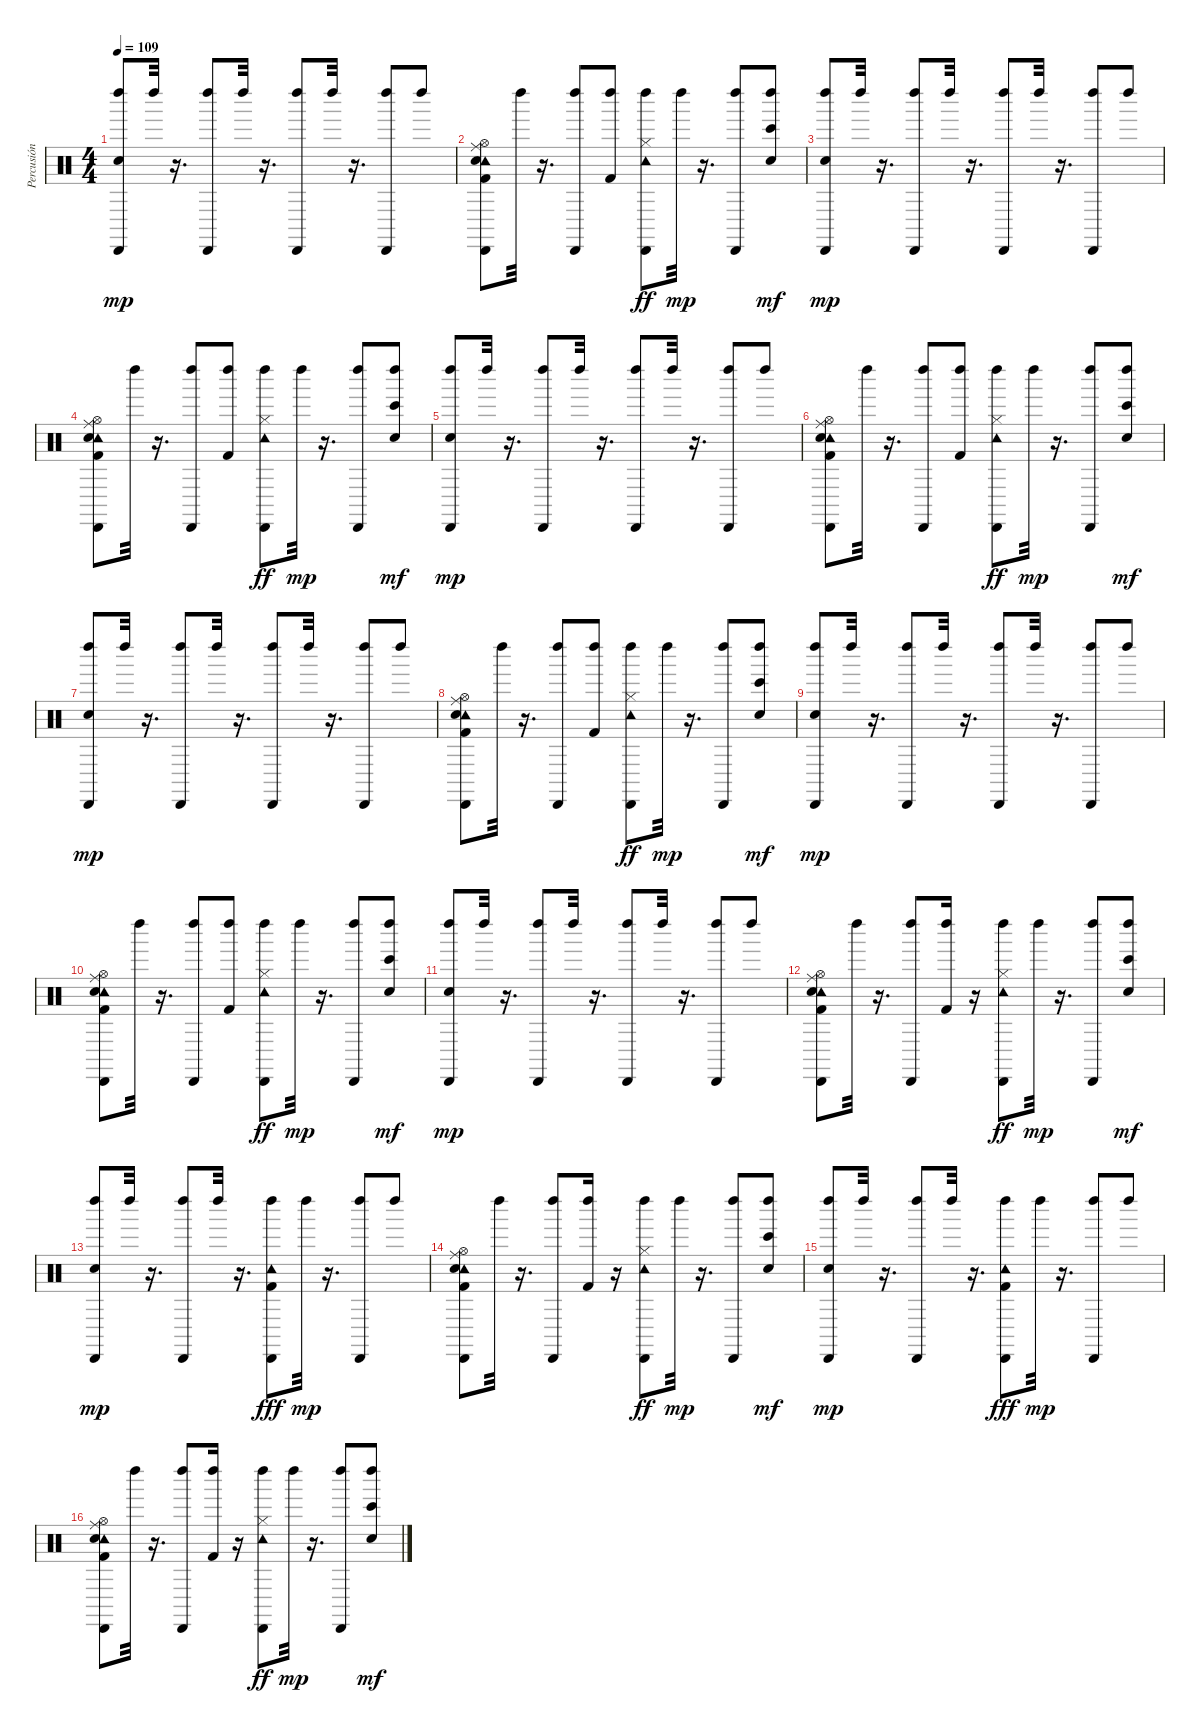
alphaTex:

\track ("Percusión" "Percusión") {instrument percussion}
\staff {score}
\articulation defaults
\ts (4 4)
\tempo 109
\clef neutral
\ks c
("Left Maraca (hit)" "Snare (hit)" "Cabasa (hit)").8{dy mp} "Left Maraca (hit)".32 r.16{d} ("Left Maraca (hit)" "Cabasa (hit)").8 "Left Maraca (hit)".32 r.16{d} ("Cabasa (hit)" "Left Maraca (hit)").8 "Left Maraca (hit)".32 r.16{d} ("Cabasa (hit)" "Left Maraca (hit)").8 "Left Maraca (hit)".8 |
("Ride (middle)" "Kick (hit) 2" "Hi-Hat (open)" "Tambourine (hit)" "Snare (hit)" "Cabasa (hit)").8 "Left Maraca (hit)".32 r.16{d} ("Cabasa (hit)" "Left Maraca (hit)").8 ("Kick (hit) 2" "Left Maraca (hit)").8 ("Left Maraca (hit)" "Cabasa (hit)" "Hi-Hat (closed)" "Tambourine (hit)").8{dy ff} "Left Maraca (hit)".32{dy mp} r.16{d} ("Cabasa (hit)" "Left Maraca (hit)").8 ("Left Maraca (hit)" "Snare (hit)" "Bongo High (hit)").8{dy mf} |
("Left Maraca (hit)" "Snare (hit)" "Cabasa (hit)").8{dy mp} "Left Maraca (hit)".32 r.16{d} ("Left Maraca (hit)" "Cabasa (hit)").8 "Left Maraca (hit)".32 r.16{d} ("Cabasa (hit)" "Left Maraca (hit)").8 "Left Maraca (hit)".32 r.16{d} ("Cabasa (hit)" "Left Maraca (hit)").8 "Left Maraca (hit)".8 |
("Ride (middle)" "Kick (hit) 2" "Hi-Hat (open)" "Tambourine (hit)" "Snare (hit)" "Cabasa (hit)").8 "Left Maraca (hit)".32 r.16{d} ("Cabasa (hit)" "Left Maraca (hit)").8 ("Kick (hit) 2" "Left Maraca (hit)").8 ("Left Maraca (hit)" "Cabasa (hit)" "Hi-Hat (closed)" "Tambourine (hit)").8{dy ff} "Left Maraca (hit)".32{dy mp} r.16{d} ("Cabasa (hit)" "Left Maraca (hit)").8 ("Left Maraca (hit)" "Snare (hit)" "Bongo High (hit)").8{dy mf} |
("Left Maraca (hit)" "Snare (hit)" "Cabasa (hit)").8{dy mp} "Left Maraca (hit)".32 r.16{d} ("Left Maraca (hit)" "Cabasa (hit)").8 "Left Maraca (hit)".32 r.16{d} ("Cabasa (hit)" "Left Maraca (hit)").8 "Left Maraca (hit)".32 r.16{d} ("Cabasa (hit)" "Left Maraca (hit)").8 "Left Maraca (hit)".8 |
("Ride (middle)" "Kick (hit) 2" "Hi-Hat (open)" "Tambourine (hit)" "Snare (hit)" "Cabasa (hit)").8 "Left Maraca (hit)".32 r.16{d} ("Cabasa (hit)" "Left Maraca (hit)").8 ("Kick (hit) 2" "Left Maraca (hit)").8 ("Left Maraca (hit)" "Cabasa (hit)" "Hi-Hat (closed)" "Tambourine (hit)").8{dy ff} "Left Maraca (hit)".32{dy mp} r.16{d} ("Cabasa (hit)" "Left Maraca (hit)").8 ("Left Maraca (hit)" "Snare (hit)" "Bongo High (hit)").8{dy mf} |
("Left Maraca (hit)" "Snare (hit)" "Cabasa (hit)").8{dy mp} "Left Maraca (hit)".32 r.16{d} ("Left Maraca (hit)" "Cabasa (hit)").8 "Left Maraca (hit)".32 r.16{d} ("Cabasa (hit)" "Left Maraca (hit)").8 "Left Maraca (hit)".32 r.16{d} ("Cabasa (hit)" "Left Maraca (hit)").8 "Left Maraca (hit)".8 |
("Ride (middle)" "Kick (hit) 2" "Hi-Hat (open)" "Tambourine (hit)" "Snare (hit)" "Cabasa (hit)").8 "Left Maraca (hit)".32 r.16{d} ("Cabasa (hit)" "Left Maraca (hit)").8 ("Kick (hit) 2" "Left Maraca (hit)").8 ("Left Maraca (hit)" "Cabasa (hit)" "Hi-Hat (closed)" "Tambourine (hit)").8{dy ff} "Left Maraca (hit)".32{dy mp} r.16{d} ("Cabasa (hit)" "Left Maraca (hit)").8 ("Left Maraca (hit)" "Snare (hit)" "Bongo High (hit)").8{dy mf} |
("Left Maraca (hit)" "Snare (hit)" "Cabasa (hit)").8{dy mp} "Left Maraca (hit)".32 r.16{d} ("Left Maraca (hit)" "Cabasa (hit)").8 "Left Maraca (hit)".32 r.16{d} ("Cabasa (hit)" "Left Maraca (hit)").8 "Left Maraca (hit)".32 r.16{d} ("Cabasa (hit)" "Left Maraca (hit)").8 "Left Maraca (hit)".8 |
("Ride (middle)" "Kick (hit) 2" "Hi-Hat (open)" "Tambourine (hit)" "Snare (hit)" "Cabasa (hit)").8 "Left Maraca (hit)".32 r.16{d} ("Cabasa (hit)" "Left Maraca (hit)").8 ("Kick (hit) 2" "Left Maraca (hit)").8 ("Left Maraca (hit)" "Cabasa (hit)" "Hi-Hat (closed)" "Tambourine (hit)").8{dy ff} "Left Maraca (hit)".32{dy mp} r.16{d} ("Cabasa (hit)" "Left Maraca (hit)").8 ("Left Maraca (hit)" "Snare (hit)" "Bongo High (hit)").8{dy mf} |
("Left Maraca (hit)" "Snare (hit)" "Cabasa (hit)").8{dy mp} "Left Maraca (hit)".32 r.16{d} ("Left Maraca (hit)" "Cabasa (hit)").8 "Left Maraca (hit)".32 r.16{d} ("Cabasa (hit)" "Left Maraca (hit)").8 "Left Maraca (hit)".32 r.16{d} ("Cabasa (hit)" "Left Maraca (hit)").8 "Left Maraca (hit)".8 |
("Ride (middle)" "Kick (hit) 2" "Hi-Hat (open)" "Tambourine (hit)" "Snare (hit)" "Cabasa (hit)").8 "Left Maraca (hit)".32 r.16{d} ("Cabasa (hit)" "Left Maraca (hit)").8 ("Kick (hit) 2" "Left Maraca (hit)").16 r.16 ("Left Maraca (hit)" "Cabasa (hit)" "Hi-Hat (closed)" "Tambourine (hit)").8{dy ff} "Left Maraca (hit)".32{dy mp} r.16{d} ("Cabasa (hit)" "Left Maraca (hit)").8 ("Left Maraca (hit)" "Snare (hit)" "Bongo High (hit)").8{dy mf} |
("Left Maraca (hit)" "Snare (hit)" "Cabasa (hit)").8{dy mp} "Left Maraca (hit)".32 r.16{d} ("Left Maraca (hit)" "Cabasa (hit)").8 "Left Maraca (hit)".32 r.16{d} ("Cabasa (hit)" "Left Maraca (hit)" "Kick (hit) 2" "Tambourine (hit)").8{dy fff} "Left Maraca (hit)".32{dy mp} r.16{d} ("Cabasa (hit)" "Left Maraca (hit)").8 "Left Maraca (hit)".8 |
("Ride (middle)" "Kick (hit) 2" "Hi-Hat (open)" "Tambourine (hit)" "Snare (hit)" "Cabasa (hit)").8 "Left Maraca (hit)".32 r.16{d} ("Cabasa (hit)" "Left Maraca (hit)").8 ("Kick (hit) 2" "Left Maraca (hit)").16 r.16 ("Left Maraca (hit)" "Cabasa (hit)" "Hi-Hat (closed)" "Tambourine (hit)").8{dy ff} "Left Maraca (hit)".32{dy mp} r.16{d} ("Cabasa (hit)" "Left Maraca (hit)").8 ("Left Maraca (hit)" "Snare (hit)" "Bongo High (hit)").8{dy mf} |
("Left Maraca (hit)" "Snare (hit)" "Cabasa (hit)").8{dy mp} "Left Maraca (hit)".32 r.16{d} ("Left Maraca (hit)" "Cabasa (hit)").8 "Left Maraca (hit)".32 r.16{d} ("Cabasa (hit)" "Left Maraca (hit)" "Kick (hit) 2" "Tambourine (hit)").8{dy fff} "Left Maraca (hit)".32{dy mp} r.16{d} ("Cabasa (hit)" "Left Maraca (hit)").8 "Left Maraca (hit)".8 |
("Ride (middle)" "Kick (hit) 2" "Hi-Hat (open)" "Tambourine (hit)" "Snare (hit)" "Cabasa (hit)").8 "Left Maraca (hit)".32 r.16{d} ("Cabasa (hit)" "Left Maraca (hit)").8 ("Kick (hit) 2" "Left Maraca (hit)").16 r.16 ("Left Maraca (hit)" "Cabasa (hit)" "Hi-Hat (closed)" "Tambourine (hit)").8{dy ff} "Left Maraca (hit)".32{dy mp} r.16{d} ("Cabasa (hit)" "Left Maraca (hit)").8 ("Left Maraca (hit)" "Snare (hit)" "Bongo High (hit)").8{dy mf}
